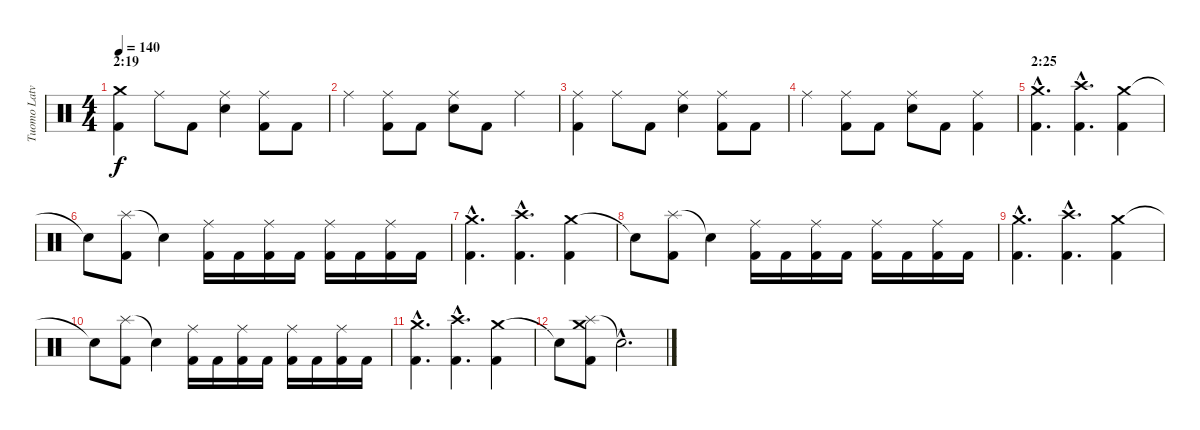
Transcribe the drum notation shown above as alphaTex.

\track ("Tuomo Latvala" "Tuomo Latv") {instrument percussion}
\staff {score}
\articulation defaults
\ts (4 4)
\section ("" "2:19")
\tempo 140
\clef neutral
\ks c
("Crash medium (hit)" "Kick (hit) 2").4{dy f} "Ride (middle)".8 "Kick (hit) 2".8 ("Ride (middle)" "Electric Snare (hit)").4 ("Ride (middle)" "Kick (hit) 2").8 "Kick (hit) 2".8 |
"Ride (middle)".4 ("Ride (middle)" "Kick (hit) 2").8 "Kick (hit) 2".8 ("Ride (middle)" "Electric Snare (hit)").8 "Kick (hit) 2".8 "Ride (middle)".4 |
("Ride (middle)" "Kick (hit) 2").4 "Ride (middle)".8 "Kick (hit) 2".8 ("Ride (middle)" "Electric Snare (hit)").4 ("Ride (middle)" "Kick (hit) 2").8 "Kick (hit) 2".8 |
"Ride (middle)".4 ("Ride (middle)" "Kick (hit) 2").8 "Kick (hit) 2".8 ("Ride (middle)" "Electric Snare (hit)").8 "Kick (hit) 2".8 ("Ride (middle)" "Kick (hit) 2").4 |
\section ("" "2:25")
("Crash medium (hit)"{hac} "Kick (hit) 2"{hac}).4{d} ("Crash high (hit)"{hac} "Kick (hit) 2"{hac}).4{d} ("Crash medium (hit)" "Kick (hit) 2").4 |
"Snare (hit)"{t}.8 ("Splash (hit)" "Kick (hit) 2").8 "Snare (hit)"{t}.4 ("Ride (middle)" "Kick (hit) 2").16 "Kick (hit) 2".16 ("Ride (middle)" "Kick (hit) 2").16 "Kick (hit) 2".16 ("Ride (middle)" "Kick (hit) 2").16 "Kick (hit) 2".16 ("Ride (middle)" "Kick (hit) 2").16 "Kick (hit) 2".16 |
("Crash medium (hit)"{hac} "Kick (hit) 2"{hac}).4{d} ("Crash high (hit)"{hac} "Kick (hit) 2"{hac}).4{d} ("Crash medium (hit)" "Kick (hit) 2").4 |
"Snare (hit)"{t}.8 ("Splash (hit)" "Kick (hit) 2").8 "Snare (hit)"{t}.4 ("Ride (middle)" "Kick (hit) 2").16 "Kick (hit) 2".16 ("Ride (middle)" "Kick (hit) 2").16 "Kick (hit) 2".16 ("Ride (middle)" "Kick (hit) 2").16 "Kick (hit) 2".16 ("Ride (middle)" "Kick (hit) 2").16 "Kick (hit) 2".16 |
("Crash medium (hit)"{hac} "Kick (hit) 2"{hac}).4{d} ("Crash high (hit)"{hac} "Kick (hit) 2"{hac}).4{d} ("Crash medium (hit)" "Kick (hit) 2").4 |
"Snare (hit)"{t}.8 ("Splash (hit)" "Kick (hit) 2").8 "Snare (hit)"{t}.4 ("Ride (middle)" "Kick (hit) 2").16 "Kick (hit) 2".16 ("Ride (middle)" "Kick (hit) 2").16 "Kick (hit) 2".16 ("Ride (middle)" "Kick (hit) 2").16 "Kick (hit) 2".16 ("Ride (middle)" "Kick (hit) 2").16 "Kick (hit) 2".16 |
("Crash medium (hit)"{hac} "Kick (hit) 2"{hac}).4{d} ("Crash high (hit)"{hac} "Kick (hit) 2"{hac}).4{d} ("Crash medium (hit)" "Kick (hit) 2").4 |
"Snare (hit)"{t}.8 ("Splash (hit)" "Crash medium (hit)" "Kick (hit) 2").8 "Snare (hit)"{hac t}.2{d}
